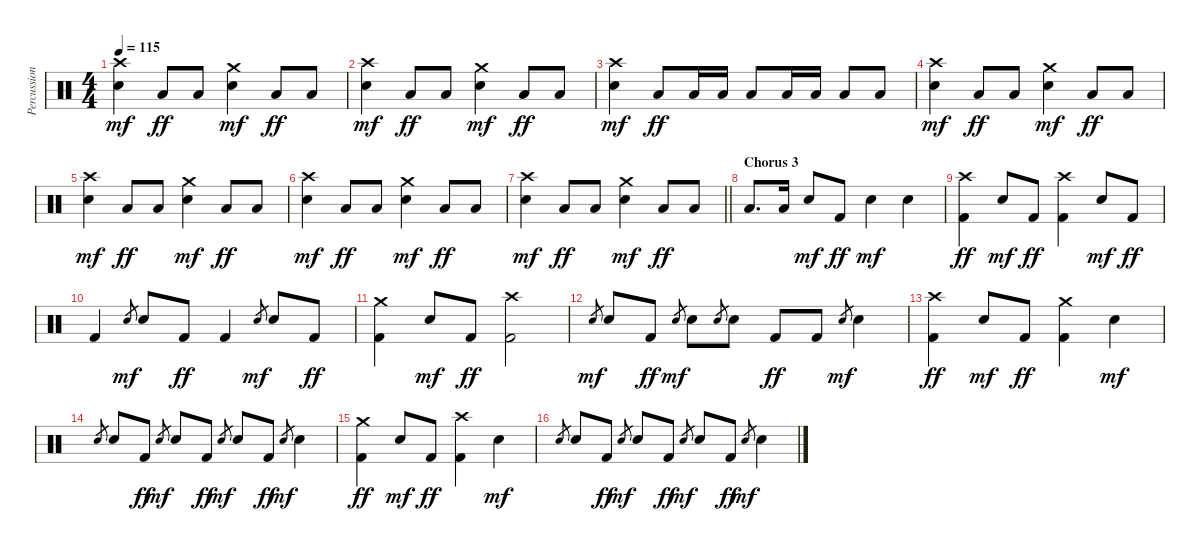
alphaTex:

\track ("Percussion" "Percussion") {instrument percussion}
\staff {score}
\articulation defaults
\ts (4 4)
\tempo 115
\clef neutral
\ks c
("Crash high (hit)" "Snare (hit) 2").4{dy mf} "Low Floor Tom (hit)".8{dy ff} "Low Floor Tom (hit)".8 ("Crash medium (hit)" "Snare (hit) 2").4{dy mf} "Low Floor Tom (hit)".8{dy ff} "Low Floor Tom (hit)".8 |
("Crash high (hit)" "Snare (hit) 2").4{dy mf} "Low Floor Tom (hit)".8{dy ff} "Low Floor Tom (hit)".8 ("Crash medium (hit)" "Snare (hit) 2").4{dy mf} "Low Floor Tom (hit)".8{dy ff} "Low Floor Tom (hit)".8 |
("Crash high (hit)" "Snare (hit) 2").4{dy mf} "Low Floor Tom (hit)".8{dy ff} "Low Tom (hit)".16 "Low Tom (hit)".16 "Low Tom (hit)".8 "Low Floor Tom (hit)".16 "Low Floor Tom (hit)".16 "Low Floor Tom (hit)".8 "Low Floor Tom (hit)".8 |
("Crash high (hit)" "Snare (hit) 2").4{dy mf} "Low Floor Tom (hit)".8{dy ff} "Low Floor Tom (hit)".8 ("Crash medium (hit)" "Snare (hit) 2").4{dy mf} "Low Floor Tom (hit)".8{dy ff} "Low Floor Tom (hit)".8 |
("Crash high (hit)" "Snare (hit) 2").4{dy mf} "Low Floor Tom (hit)".8{dy ff} "Low Floor Tom (hit)".8 ("Crash medium (hit)" "Snare (hit) 2").4{dy mf} "Low Floor Tom (hit)".8{dy ff} "Low Floor Tom (hit)".8 |
("Crash high (hit)" "Snare (hit) 2").4{dy mf} "Low Floor Tom (hit)".8{dy ff} "Low Floor Tom (hit)".8 ("Crash medium (hit)" "Snare (hit) 2").4{dy mf} "Low Floor Tom (hit)".8{dy ff} "Low Floor Tom (hit)".8 |
\barLineRight lightlight
("Crash high (hit)" "Snare (hit) 2").4{dy mf} "Low Floor Tom (hit)".8{dy ff} "Low Floor Tom (hit)".8 ("Crash medium (hit)" "Snare (hit) 2").4{dy mf} "Low Floor Tom (hit)".8{dy ff} "Low Floor Tom (hit)".8 |
\section ("" "Chorus 3")
"Low Floor Tom (hit)".8{d} "Low Floor Tom (hit)".16 "Snare (hit) 2".8{dy mf} "Kick (hit) 2".8{dy ff} "Snare (hit) 2".4{dy mf} "Snare (hit) 2".4 |
("Crash high (hit)" "Kick (hit) 2").4{dy ff} "Snare (hit) 2".8{dy mf} "Kick (hit) 2".8{dy ff} ("Crash high (hit)" "Kick (hit) 2").4 "Snare (hit) 2".8{dy mf} "Kick (hit) 2".8{dy ff} |
"Kick (hit) 2".4 "Snare (hit) 2".8{gr dy mf} "Snare (hit) 2".8 "Kick (hit) 2".8{dy ff} "Kick (hit) 2".4 "Snare (hit) 2".8{gr dy mf} "Snare (hit) 2".8 "Kick (hit) 2".8{dy ff} |
("Crash medium (hit)" "Kick (hit) 2").4 "Snare (hit) 2".8{dy mf} "Kick (hit) 2".8{dy ff} ("Crash high (hit)" "Kick (hit) 2").2 |
"Snare (hit) 2".8{gr dy mf} "Snare (hit) 2".8 "Kick (hit) 2".8{dy ff} "Snare (hit) 2".8{gr dy mf} "Snare (hit) 2".8 "Snare (hit) 2".8{gr} "Snare (hit) 2".8 "Kick (hit) 2".8{dy ff} "Kick (hit) 2".8 "Snare (hit) 2".8{gr dy mf} "Snare (hit) 2".4 |
("Crash high (hit)" "Kick (hit) 2").4{dy ff} "Snare (hit) 2".8{dy mf} "Kick (hit) 2".8{dy ff} ("Crash medium (hit)" "Kick (hit) 2").4 "Snare (hit) 2".4{dy mf} |
"Snare (hit) 2".8{gr} "Snare (hit) 2".8 "Kick (hit) 2".8{dy ff} "Snare (hit) 2".8{gr dy mf} "Snare (hit) 2".8 "Kick (hit) 2".8{dy ff} "Snare (hit) 2".8{gr dy mf} "Snare (hit) 2".8 "Kick (hit) 2".8{dy ff} "Snare (hit) 2".8{gr dy mf} "Snare (hit) 2".4 |
("Crash medium (hit)" "Kick (hit) 2").4{dy ff} "Snare (hit) 2".8{dy mf} "Kick (hit) 2".8{dy ff} ("Crash high (hit)" "Kick (hit) 2").4 "Snare (hit) 2".4{dy mf} |
"Snare (hit) 2".8{gr} "Snare (hit) 2".8 "Kick (hit) 2".8{dy ff} "Snare (hit) 2".8{gr dy mf} "Snare (hit) 2".8 "Kick (hit) 2".8{dy ff} "Snare (hit) 2".8{gr dy mf} "Snare (hit) 2".8 "Kick (hit) 2".8{dy ff} "Snare (hit) 2".8{gr dy mf} "Snare (hit) 2".4
